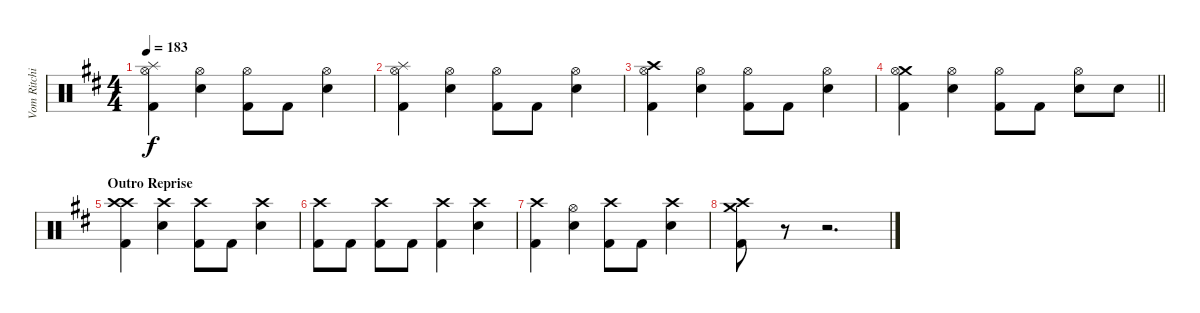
\track ("Vom Ritchie" "Vom Ritchi") {instrument percussion}
\staff {score}
\articulation defaults
\ts (4 4)
\tempo 183
\clef neutral
\ks d
("Splash (hit)" "Hi-Hat (open)" "Kick (hit) 2").4{dy f} ("Snare (hit) 2" "Hi-Hat (open)").4 ("Hi-Hat (open)" "Kick (hit) 2").8 "Kick (hit) 2".8 ("Snare (hit) 2" "Hi-Hat (open)").4 |
("Splash (hit)" "Hi-Hat (open)" "Kick (hit) 2").4 ("Snare (hit) 2" "Hi-Hat (open)").4 ("Hi-Hat (open)" "Kick (hit) 2").8 "Kick (hit) 2".8 ("Snare (hit) 2" "Hi-Hat (open)").4 |
("Crash high (hit)" "Hi-Hat (open)" "Kick (hit) 2").4 ("Snare (hit) 2" "Hi-Hat (open)").4 ("Hi-Hat (open)" "Kick (hit) 2").8 "Kick (hit) 2".8 ("Snare (hit) 2" "Hi-Hat (open)").4 |
\barLineRight lightlight
("Crash medium (hit)" "Hi-Hat (open)" "Kick (hit) 2").4 ("Snare (hit) 2" "Hi-Hat (open)").4 ("Hi-Hat (open)" "Kick (hit) 2").8 "Kick (hit) 2".8 ("Snare (hit) 2" "Hi-Hat (open)").8 "Snare (hit) 2".8 |
\section ("" "Outro Reprise")
("Crash high (hit)" "Crash high (hit)" "Kick (hit) 2").4 ("Snare (hit) 2" "Crash high (hit)").4 ("Crash high (hit)" "Kick (hit) 2").8 "Kick (hit) 2".8 ("Snare (hit) 2" "Crash high (hit)").4 |
("Crash high (hit)" "Kick (hit) 2").8 "Kick (hit) 2".8 ("Crash high (hit)" "Kick (hit) 2").8 "Kick (hit) 2".8 ("Crash high (hit)" "Kick (hit) 2").4 ("Crash high (hit)" "Snare (hit) 2").4 |
("Crash high (hit)" "Kick (hit) 2").4 ("Snare (hit) 2" "Hi-Hat (open)").4 ("Crash high (hit)" "Kick (hit) 2").8 "Kick (hit) 2".8 ("Snare (hit) 2" "Crash high (hit)").4 |
("Crash high (hit)" "Crash medium (hit)" "Kick (hit) 2").8 r.8 r.2{d}
